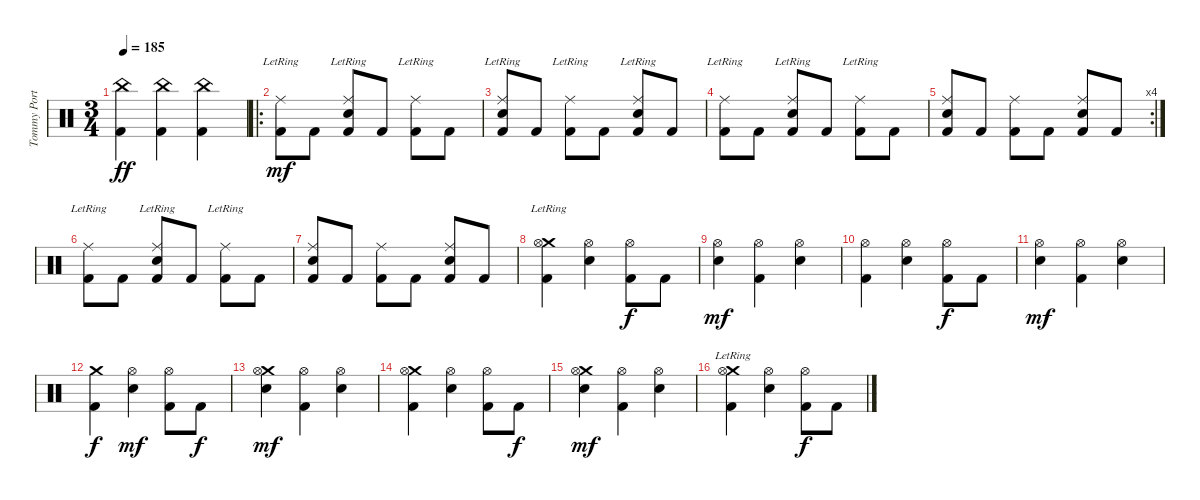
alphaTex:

\track ("Tommy Portino" "Tommy Port") {instrument percussion}
\staff {score}
\articulation defaults
\ts (3 4)
\tempo 185
\clef neutral
\ks c
("China (hit)" "Kick (hit) 2").4{dy ff} ("China (hit)" "Kick (hit) 2").4 ("China (hit)" "Kick (hit) 2").4 |
\ro
("Ride (middle)"{lr} "Kick (hit) 2").8{dy mf} "Kick (hit) 2".8 ("Ride (middle)"{lr} "Snare (hit) 2" "Kick (hit) 2").8 "Kick (hit) 2".8 ("Ride (middle)"{lr} "Kick (hit) 2").8 "Kick (hit) 2".8 |
("Ride (middle)"{lr} "Snare (hit) 2" "Kick (hit) 2").8 "Kick (hit) 2".8 ("Ride (middle)"{lr} "Kick (hit) 2").8 "Kick (hit) 2".8 ("Ride (middle)"{lr} "Snare (hit) 2" "Kick (hit) 2").8 "Kick (hit) 2".8 |
("Ride (middle)"{lr} "Kick (hit) 2").8 "Kick (hit) 2".8 ("Ride (middle)"{lr} "Snare (hit) 2" "Kick (hit) 2").8 "Kick (hit) 2".8 ("Ride (middle)"{lr} "Kick (hit) 2").8 "Kick (hit) 2".8 |
\rc 4
("Ride (middle)" "Snare (hit) 2" "Kick (hit) 2").8 "Kick (hit) 2".8 ("Ride (middle)" "Kick (hit) 2").8 "Kick (hit) 2".8 ("Ride (middle)" "Snare (hit) 2" "Kick (hit) 2").8 "Kick (hit) 2".8 |
("Ride (middle)"{lr} "Kick (hit) 2").8 "Kick (hit) 2".8 ("Ride (middle)"{lr} "Snare (hit) 2" "Kick (hit) 2").8 "Kick (hit) 2".8 ("Ride (middle)"{lr} "Kick (hit) 2").8 "Kick (hit) 2".8 |
("Ride (middle)" "Snare (hit) 2" "Kick (hit) 2").8 "Kick (hit) 2".8 ("Ride (middle)" "Kick (hit) 2").8 "Kick (hit) 2".8 ("Ride (middle)" "Snare (hit) 2" "Kick (hit) 2").8 "Kick (hit) 2".8 |
("Crash medium (hit)"{lr} "Hi-Hat (open)" "Kick (hit) 2").4 ("Hi-Hat (open)" "Snare (hit) 2").4 ("Hi-Hat (open)" "Kick (hit) 2").8{dy f} "Kick (hit) 2".8 |
("Hi-Hat (open)" "Snare (hit) 2").4{dy mf} ("Hi-Hat (open)" "Kick (hit) 2").4 ("Hi-Hat (open)" "Snare (hit) 2").4 |
("Hi-Hat (open)" "Kick (hit) 2").4 ("Hi-Hat (open)" "Snare (hit) 2").4 ("Hi-Hat (open)" "Kick (hit) 2").8{dy f} "Kick (hit) 2".8 |
("Hi-Hat (open)" "Snare (hit) 2").4{dy mf} ("Hi-Hat (open)" "Kick (hit) 2").4 ("Hi-Hat (open)" "Snare (hit) 2").4 |
("Crash medium (hit)" "Kick (hit) 2").4{dy f} ("Snare (hit) 2" "Hi-Hat (open)").4{dy mf} ("Hi-Hat (open)" "Kick (hit) 2").8 "Kick (hit) 2".8{dy f} |
("Crash medium (hit)" "Snare (hit) 2" "Hi-Hat (open)").4{dy mf} ("Hi-Hat (open)" "Kick (hit) 2").4 ("Snare (hit) 2" "Hi-Hat (open)").4 |
("Crash medium (hit)" "Hi-Hat (open)" "Kick (hit) 2").4 ("Snare (hit) 2" "Hi-Hat (open)").4 ("Hi-Hat (open)" "Kick (hit) 2").8 "Kick (hit) 2".8{dy f} |
("Crash medium (hit)" "Snare (hit) 2" "Hi-Hat (open)").4{dy mf} ("Hi-Hat (open)" "Kick (hit) 2").4 ("Snare (hit) 2" "Hi-Hat (open)").4 |
("Crash medium (hit)"{lr} "Hi-Hat (open)" "Kick (hit) 2").4 ("Hi-Hat (open)" "Snare (hit) 2").4 ("Hi-Hat (open)" "Kick (hit) 2").8{dy f} "Kick (hit) 2".8
